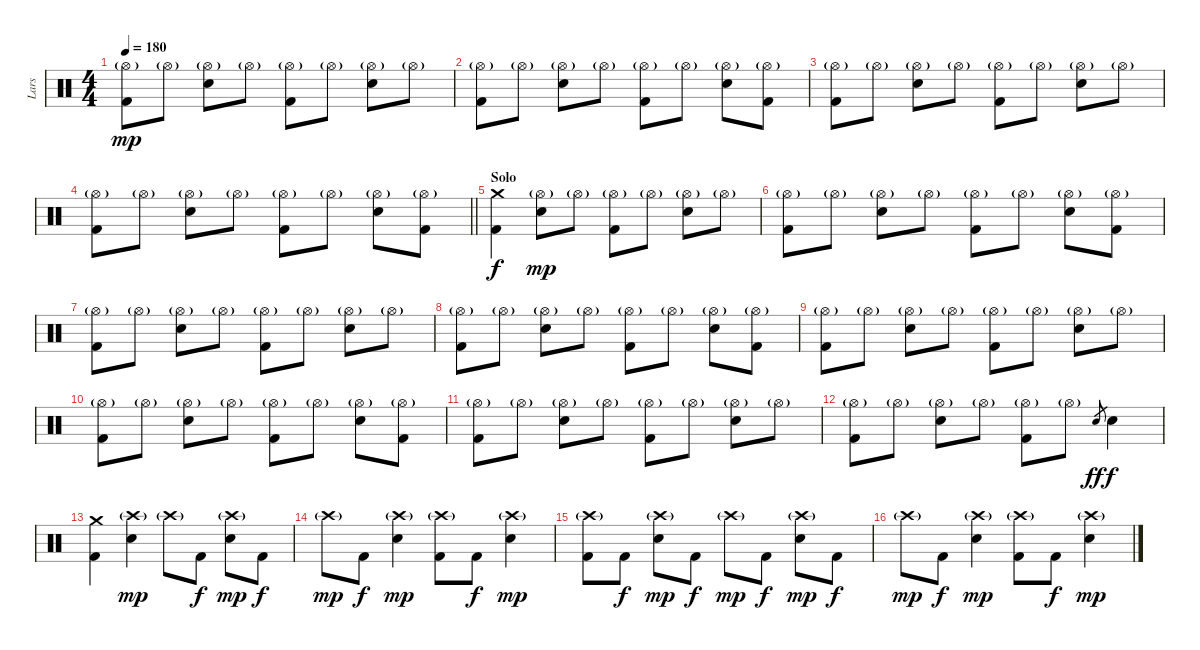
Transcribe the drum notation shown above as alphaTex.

\track ("Lars" "Lars") {instrument percussion}
\staff {score}
\articulation defaults
\ts (4 4)
\tempo 180
\clef neutral
\ks c
("Hi-Hat (open)"{g} "Kick (hit) 2").8{dy mp} "Hi-Hat (open)"{g}.8 ("Hi-Hat (open)"{g} "Electric Snare (hit)").8 "Hi-Hat (open)"{g}.8 ("Hi-Hat (open)"{g} "Kick (hit) 2").8 "Hi-Hat (open)"{g}.8 ("Hi-Hat (open)"{g} "Electric Snare (hit)").8 "Hi-Hat (open)"{g}.8 |
("Hi-Hat (open)"{g} "Kick (hit) 2").8 "Hi-Hat (open)"{g}.8 ("Hi-Hat (open)"{g} "Electric Snare (hit)").8 "Hi-Hat (open)"{g}.8 ("Hi-Hat (open)"{g} "Kick (hit) 2").8 "Hi-Hat (open)"{g}.8 ("Hi-Hat (open)"{g} "Electric Snare (hit)").8 ("Hi-Hat (open)"{g} "Kick (hit) 2").8 |
("Hi-Hat (open)"{g} "Kick (hit) 2").8 "Hi-Hat (open)"{g}.8 ("Hi-Hat (open)"{g} "Electric Snare (hit)").8 "Hi-Hat (open)"{g}.8 ("Hi-Hat (open)"{g} "Kick (hit) 2").8 "Hi-Hat (open)"{g}.8 ("Hi-Hat (open)"{g} "Electric Snare (hit)").8 "Hi-Hat (open)"{g}.8 |
\barLineRight lightlight
("Hi-Hat (open)"{g} "Kick (hit) 2").8 "Hi-Hat (open)"{g}.8 ("Hi-Hat (open)"{g} "Electric Snare (hit)").8 "Hi-Hat (open)"{g}.8 ("Hi-Hat (open)"{g} "Kick (hit) 2").8 "Hi-Hat (open)"{g}.8 ("Hi-Hat (open)"{g} "Electric Snare (hit)").8 ("Hi-Hat (open)"{g} "Kick (hit) 2").8 |
\section ("" "Solo")
("Crash medium (hit)" "Kick (hit) 2").4{dy f} ("Hi-Hat (open)"{g} "Electric Snare (hit)").8{dy mp} "Hi-Hat (open)"{g}.8 ("Hi-Hat (open)"{g} "Kick (hit) 2").8 "Hi-Hat (open)"{g}.8 ("Hi-Hat (open)"{g} "Electric Snare (hit)").8 "Hi-Hat (open)"{g}.8 |
("Hi-Hat (open)"{g} "Kick (hit) 2").8 "Hi-Hat (open)"{g}.8 ("Hi-Hat (open)"{g} "Electric Snare (hit)").8 "Hi-Hat (open)"{g}.8 ("Hi-Hat (open)"{g} "Kick (hit) 2").8 "Hi-Hat (open)"{g}.8 ("Hi-Hat (open)"{g} "Electric Snare (hit)").8 ("Hi-Hat (open)"{g} "Kick (hit) 2").8 |
("Hi-Hat (open)"{g} "Kick (hit) 2").8 "Hi-Hat (open)"{g}.8 ("Hi-Hat (open)"{g} "Electric Snare (hit)").8 "Hi-Hat (open)"{g}.8 ("Hi-Hat (open)"{g} "Kick (hit) 2").8 "Hi-Hat (open)"{g}.8 ("Hi-Hat (open)"{g} "Electric Snare (hit)").8 "Hi-Hat (open)"{g}.8 |
("Hi-Hat (open)"{g} "Kick (hit) 2").8 "Hi-Hat (open)"{g}.8 ("Hi-Hat (open)"{g} "Electric Snare (hit)").8 "Hi-Hat (open)"{g}.8 ("Hi-Hat (open)"{g} "Kick (hit) 2").8 "Hi-Hat (open)"{g}.8 ("Hi-Hat (open)"{g} "Electric Snare (hit)").8 ("Hi-Hat (open)"{g} "Kick (hit) 2").8 |
("Hi-Hat (open)"{g} "Kick (hit) 2").8 "Hi-Hat (open)"{g}.8 ("Hi-Hat (open)"{g} "Electric Snare (hit)").8 "Hi-Hat (open)"{g}.8 ("Hi-Hat (open)"{g} "Kick (hit) 2").8 "Hi-Hat (open)"{g}.8 ("Hi-Hat (open)"{g} "Electric Snare (hit)").8 "Hi-Hat (open)"{g}.8 |
("Hi-Hat (open)"{g} "Kick (hit) 2").8 "Hi-Hat (open)"{g}.8 ("Hi-Hat (open)"{g} "Electric Snare (hit)").8 "Hi-Hat (open)"{g}.8 ("Hi-Hat (open)"{g} "Kick (hit) 2").8 "Hi-Hat (open)"{g}.8 ("Hi-Hat (open)"{g} "Electric Snare (hit)").8 ("Hi-Hat (open)"{g} "Kick (hit) 2").8 |
("Hi-Hat (open)"{g} "Kick (hit) 2").8 "Hi-Hat (open)"{g}.8 ("Hi-Hat (open)"{g} "Electric Snare (hit)").8 "Hi-Hat (open)"{g}.8 ("Hi-Hat (open)"{g} "Kick (hit) 2").8 "Hi-Hat (open)"{g}.8 ("Hi-Hat (open)"{g} "Electric Snare (hit)").8 "Hi-Hat (open)"{g}.8 |
("Hi-Hat (open)"{g} "Kick (hit) 2").8 "Hi-Hat (open)"{g}.8 ("Hi-Hat (open)"{g} "Electric Snare (hit)").8 "Hi-Hat (open)"{g}.8 ("Hi-Hat (open)"{g} "Kick (hit) 2").8 "Hi-Hat (open)"{g}.8 "Electric Snare (hit)".8{gr dy ff} "Electric Snare (hit)".4{dy f} |
("Crash medium (hit)" "Kick (hit) 2").4 ("Crash high (hit)"{g} "Electric Snare (hit)").4{dy mp} "Crash high (hit)"{g}.8 "Kick (hit) 2".8{dy f} ("Crash high (hit)"{g} "Electric Snare (hit)").8{dy mp} "Kick (hit) 2".8{dy f} |
"Crash high (hit)"{g}.8{dy mp} "Kick (hit) 2".8{dy f} ("Crash high (hit)"{g} "Electric Snare (hit)").4{dy mp} ("Crash high (hit)"{g} "Kick (hit) 2").8 "Kick (hit) 2".8{dy f} ("Crash high (hit)"{g} "Electric Snare (hit)").4{dy mp} |
("Crash high (hit)"{g} "Kick (hit) 2").8 "Kick (hit) 2".8{dy f} ("Crash high (hit)"{g} "Electric Snare (hit)").8{dy mp} "Kick (hit) 2".8{dy f} "Crash high (hit)"{g}.8{dy mp} "Kick (hit) 2".8{dy f} ("Crash high (hit)"{g} "Electric Snare (hit)").8{dy mp} "Kick (hit) 2".8{dy f} |
"Crash high (hit)"{g}.8{dy mp} "Kick (hit) 2".8{dy f} ("Crash high (hit)"{g} "Electric Snare (hit)").4{dy mp} ("Crash high (hit)"{g} "Kick (hit) 2").8 "Kick (hit) 2".8{dy f} ("Crash high (hit)"{g} "Electric Snare (hit)").4{dy mp}
